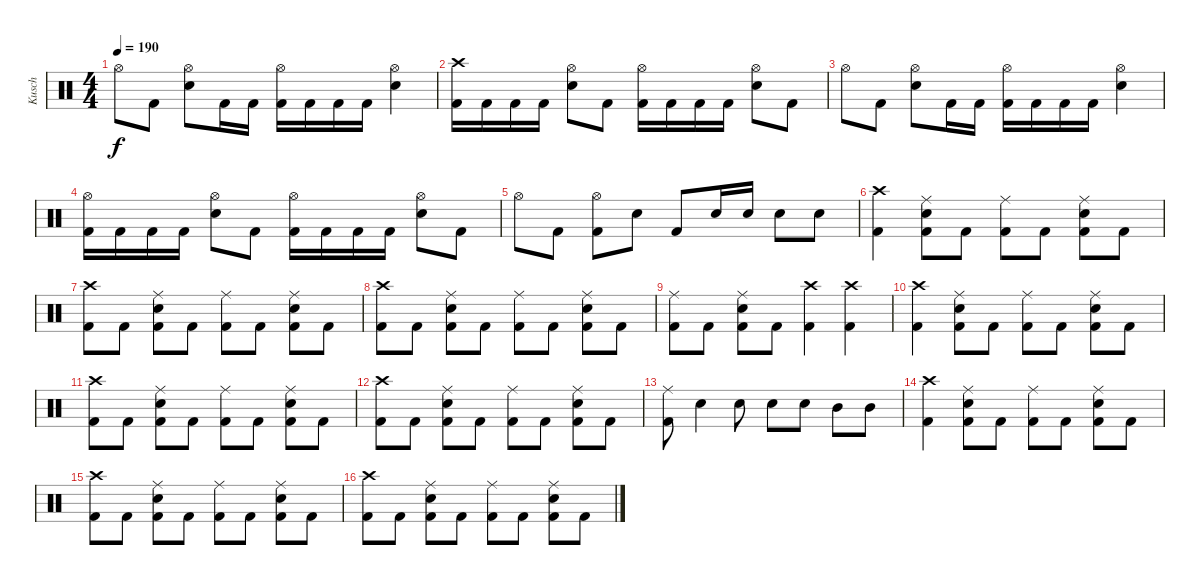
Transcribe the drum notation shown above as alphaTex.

\track ("Kusch" "Kusch") {instrument percussion}
\staff {score}
\articulation defaults
\ts (4 4)
\tempo 190
\clef neutral
\ks c "Hi-Hat (open)".8{dy f} "Kick (hit) 2".8
("Hi-Hat (open)" "Electric Snare (hit)").8 "Kick (hit) 2".16 "Kick (hit) 2".16 ("Hi-Hat (open)" "Kick (hit) 2").16 "Kick (hit) 2".16 "Kick (hit) 2".16 "Kick (hit) 2".16 ("Hi-Hat (open)" "Electric Snare (hit)").4 |
("Crash high (hit)" "Kick (hit) 2").16 "Kick (hit) 2".16 "Kick (hit) 2".16 "Kick (hit) 2".16 ("Hi-Hat (open)" "Electric Snare (hit)").8 "Kick (hit) 2".8 ("Hi-Hat (open)" "Kick (hit) 2").16 "Kick (hit) 2".16 "Kick (hit) 2".16 "Kick (hit) 2".16 ("Hi-Hat (open)" "Electric Snare (hit)").8 "Kick (hit) 2".8 |
"Hi-Hat (open)".8 "Kick (hit) 2".8 ("Hi-Hat (open)" "Electric Snare (hit)").8 "Kick (hit) 2".16 "Kick (hit) 2".16 ("Hi-Hat (open)" "Kick (hit) 2").16 "Kick (hit) 2".16 "Kick (hit) 2".16 "Kick (hit) 2".16 ("Hi-Hat (open)" "Electric Snare (hit)").4 |
("Hi-Hat (open)" "Kick (hit) 2").16 "Kick (hit) 2".16 "Kick (hit) 2".16 "Kick (hit) 2".16 ("Hi-Hat (open)" "Electric Snare (hit)").8 "Kick (hit) 2".8 ("Hi-Hat (open)" "Kick (hit) 2").16 "Kick (hit) 2".16 "Kick (hit) 2".16 "Kick (hit) 2".16 ("Hi-Hat (open)" "Electric Snare (hit)").8 "Kick (hit) 2".8 |
"Hi-Hat (open)".8 "Kick (hit) 2".8 ("Hi-Hat (open)" "Kick (hit) 2").8 "Electric Snare (hit)".8 "Kick (hit) 2".8 "Electric Snare (hit)".16 "Electric Snare (hit)".16 "Electric Snare (hit)".8 "Electric Snare (hit)".8 |
("Crash high (hit)" "Kick (hit) 2").4 ("Ride (middle)" "Electric Snare (hit)" "Kick (hit) 2").8 "Kick (hit) 2".8 ("Ride (middle)" "Kick (hit) 2").8 "Kick (hit) 2".8 ("Ride (middle)" "Electric Snare (hit)" "Kick (hit) 2").8 "Kick (hit) 2".8 |
("Crash high (hit)" "Kick (hit) 2").8 "Kick (hit) 2".8 ("Ride (middle)" "Electric Snare (hit)" "Kick (hit) 2").8 "Kick (hit) 2".8 ("Ride (middle)" "Kick (hit) 2").8 "Kick (hit) 2".8 ("Ride (middle)" "Electric Snare (hit)" "Kick (hit) 2").8 "Kick (hit) 2".8 |
("Crash high (hit)" "Kick (hit) 2").8 "Kick (hit) 2".8 ("Ride (middle)" "Electric Snare (hit)" "Kick (hit) 2").8 "Kick (hit) 2".8 ("Ride (middle)" "Kick (hit) 2").8 "Kick (hit) 2".8 ("Ride (middle)" "Electric Snare (hit)" "Kick (hit) 2").8 "Kick (hit) 2".8 |
("Ride (middle)" "Kick (hit) 2").8 "Kick (hit) 2".8 ("Ride (middle)" "Electric Snare (hit)" "Kick (hit) 2").8 "Kick (hit) 2".8 ("Crash high (hit)" "Kick (hit) 2").4 ("Crash high (hit)" "Kick (hit) 2").4 |
("Crash high (hit)" "Kick (hit) 2").4 ("Ride (middle)" "Electric Snare (hit)" "Kick (hit) 2").8 "Kick (hit) 2".8 ("Ride (middle)" "Kick (hit) 2").8 "Kick (hit) 2".8 ("Ride (middle)" "Electric Snare (hit)" "Kick (hit) 2").8 "Kick (hit) 2".8 |
("Crash high (hit)" "Kick (hit) 2").8 "Kick (hit) 2".8 ("Ride (middle)" "Electric Snare (hit)" "Kick (hit) 2").8 "Kick (hit) 2".8 ("Ride (middle)" "Kick (hit) 2").8 "Kick (hit) 2".8 ("Ride (middle)" "Electric Snare (hit)" "Kick (hit) 2").8 "Kick (hit) 2".8 |
("Crash high (hit)" "Kick (hit) 2").8 "Kick (hit) 2".8 ("Ride (middle)" "Electric Snare (hit)" "Kick (hit) 2").8 "Kick (hit) 2".8 ("Ride (middle)" "Kick (hit) 2").8 "Kick (hit) 2".8 ("Ride (middle)" "Electric Snare (hit)" "Kick (hit) 2").8 "Kick (hit) 2".8 |
("Ride (middle)" "Kick (hit) 2").8 "Electric Snare (hit)".4 "Electric Snare (hit)".8 "Electric Snare (hit)".8 "Electric Snare (hit)".8 "Mid Tom (hit)".8 "Mid Tom (hit)".8 |
("Crash high (hit)" "Kick (hit) 2").4 ("Ride (middle)" "Electric Snare (hit)" "Kick (hit) 2").8 "Kick (hit) 2".8 ("Ride (middle)" "Kick (hit) 2").8 "Kick (hit) 2".8 ("Ride (middle)" "Electric Snare (hit)" "Kick (hit) 2").8 "Kick (hit) 2".8 |
("Crash high (hit)" "Kick (hit) 2").8 "Kick (hit) 2".8 ("Ride (middle)" "Electric Snare (hit)" "Kick (hit) 2").8 "Kick (hit) 2".8 ("Ride (middle)" "Kick (hit) 2").8 "Kick (hit) 2".8 ("Ride (middle)" "Electric Snare (hit)" "Kick (hit) 2").8 "Kick (hit) 2".8 |
("Crash high (hit)" "Kick (hit) 2").8 "Kick (hit) 2".8 ("Ride (middle)" "Electric Snare (hit)" "Kick (hit) 2").8 "Kick (hit) 2".8 ("Ride (middle)" "Kick (hit) 2").8 "Kick (hit) 2".8 ("Ride (middle)" "Electric Snare (hit)" "Kick (hit) 2").8 "Kick (hit) 2".8
